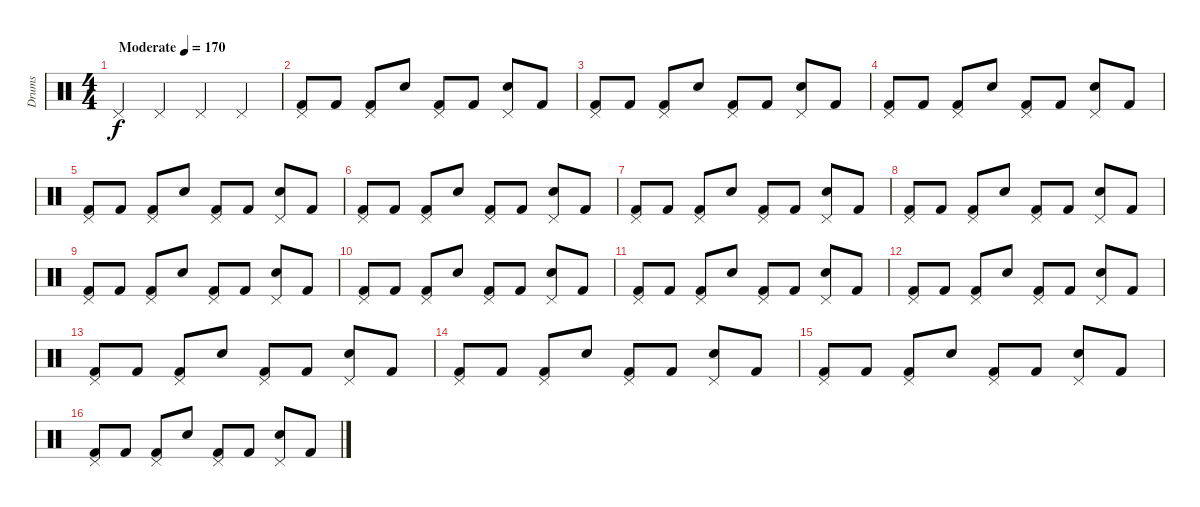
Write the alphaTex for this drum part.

\track ("Drums" "Drums") {instrument percussion}
\staff {score}
\articulation defaults
\ts (4 4)
\tempo (170 "Moderate")
\clef neutral
\ks c "Pedal Hi-Hat (hit)".4{dy f} "Pedal Hi-Hat (hit)".4 "Pedal Hi-Hat (hit)".4 "Pedal Hi-Hat (hit)".4
|
("Pedal Hi-Hat (hit)" "Kick (hit) 2").8 "Kick (hit) 2".8 ("Pedal Hi-Hat (hit)" "Kick (hit) 2").8 "Electric Snare (hit)".8 ("Pedal Hi-Hat (hit)" "Kick (hit) 2").8 "Kick (hit) 2".8 ("Pedal Hi-Hat (hit)" "Electric Snare (hit)").8 "Kick (hit) 2".8 |
("Pedal Hi-Hat (hit)" "Kick (hit) 2").8 "Kick (hit) 2".8 ("Pedal Hi-Hat (hit)" "Kick (hit) 2").8 "Electric Snare (hit)".8 ("Pedal Hi-Hat (hit)" "Kick (hit) 2").8 "Kick (hit) 2".8 ("Pedal Hi-Hat (hit)" "Electric Snare (hit)").8 "Kick (hit) 2".8 |
("Pedal Hi-Hat (hit)" "Kick (hit) 2").8 "Kick (hit) 2".8 ("Pedal Hi-Hat (hit)" "Kick (hit) 2").8 "Electric Snare (hit)".8 ("Pedal Hi-Hat (hit)" "Kick (hit) 2").8 "Kick (hit) 2".8 ("Pedal Hi-Hat (hit)" "Electric Snare (hit)").8 "Kick (hit) 2".8 |
("Pedal Hi-Hat (hit)" "Kick (hit) 2").8 "Kick (hit) 2".8 ("Pedal Hi-Hat (hit)" "Kick (hit) 2").8 "Electric Snare (hit)".8 ("Pedal Hi-Hat (hit)" "Kick (hit) 2").8 "Kick (hit) 2".8 ("Pedal Hi-Hat (hit)" "Electric Snare (hit)").8 "Kick (hit) 2".8 |
("Pedal Hi-Hat (hit)" "Kick (hit) 2").8 "Kick (hit) 2".8 ("Pedal Hi-Hat (hit)" "Kick (hit) 2").8 "Electric Snare (hit)".8 ("Pedal Hi-Hat (hit)" "Kick (hit) 2").8 "Kick (hit) 2".8 ("Pedal Hi-Hat (hit)" "Electric Snare (hit)").8 "Kick (hit) 2".8 |
("Pedal Hi-Hat (hit)" "Kick (hit) 2").8 "Kick (hit) 2".8 ("Pedal Hi-Hat (hit)" "Kick (hit) 2").8 "Electric Snare (hit)".8 ("Pedal Hi-Hat (hit)" "Kick (hit) 2").8 "Kick (hit) 2".8 ("Pedal Hi-Hat (hit)" "Electric Snare (hit)").8 "Kick (hit) 2".8 |
("Pedal Hi-Hat (hit)" "Kick (hit) 2").8 "Kick (hit) 2".8 ("Pedal Hi-Hat (hit)" "Kick (hit) 2").8 "Electric Snare (hit)".8 ("Pedal Hi-Hat (hit)" "Kick (hit) 2").8 "Kick (hit) 2".8 ("Pedal Hi-Hat (hit)" "Electric Snare (hit)").8 "Kick (hit) 2".8 |
("Pedal Hi-Hat (hit)" "Kick (hit) 2").8 "Kick (hit) 2".8 ("Pedal Hi-Hat (hit)" "Kick (hit) 2").8 "Electric Snare (hit)".8 ("Pedal Hi-Hat (hit)" "Kick (hit) 2").8 "Kick (hit) 2".8 ("Pedal Hi-Hat (hit)" "Electric Snare (hit)").8 "Kick (hit) 2".8 |
("Pedal Hi-Hat (hit)" "Kick (hit) 2").8 "Kick (hit) 2".8 ("Pedal Hi-Hat (hit)" "Kick (hit) 2").8 "Electric Snare (hit)".8 ("Pedal Hi-Hat (hit)" "Kick (hit) 2").8 "Kick (hit) 2".8 ("Pedal Hi-Hat (hit)" "Electric Snare (hit)").8 "Kick (hit) 2".8 |
("Pedal Hi-Hat (hit)" "Kick (hit) 2").8 "Kick (hit) 2".8 ("Pedal Hi-Hat (hit)" "Kick (hit) 2").8 "Electric Snare (hit)".8 ("Pedal Hi-Hat (hit)" "Kick (hit) 2").8 "Kick (hit) 2".8 ("Pedal Hi-Hat (hit)" "Electric Snare (hit)").8 "Kick (hit) 2".8 |
("Pedal Hi-Hat (hit)" "Kick (hit) 2").8 "Kick (hit) 2".8 ("Pedal Hi-Hat (hit)" "Kick (hit) 2").8 "Electric Snare (hit)".8 ("Pedal Hi-Hat (hit)" "Kick (hit) 2").8 "Kick (hit) 2".8 ("Pedal Hi-Hat (hit)" "Electric Snare (hit)").8 "Kick (hit) 2".8 |
("Pedal Hi-Hat (hit)" "Kick (hit) 2").8 "Kick (hit) 2".8 ("Pedal Hi-Hat (hit)" "Kick (hit) 2").8 "Electric Snare (hit)".8 ("Pedal Hi-Hat (hit)" "Kick (hit) 2").8 "Kick (hit) 2".8 ("Pedal Hi-Hat (hit)" "Electric Snare (hit)").8 "Kick (hit) 2".8 |
("Pedal Hi-Hat (hit)" "Kick (hit) 2").8 "Kick (hit) 2".8 ("Pedal Hi-Hat (hit)" "Kick (hit) 2").8 "Electric Snare (hit)".8 ("Pedal Hi-Hat (hit)" "Kick (hit) 2").8 "Kick (hit) 2".8 ("Pedal Hi-Hat (hit)" "Electric Snare (hit)").8 "Kick (hit) 2".8 |
("Pedal Hi-Hat (hit)" "Kick (hit) 2").8 "Kick (hit) 2".8 ("Pedal Hi-Hat (hit)" "Kick (hit) 2").8 "Electric Snare (hit)".8 ("Pedal Hi-Hat (hit)" "Kick (hit) 2").8 "Kick (hit) 2".8 ("Pedal Hi-Hat (hit)" "Electric Snare (hit)").8 "Kick (hit) 2".8 |
("Pedal Hi-Hat (hit)" "Kick (hit) 2").8 "Kick (hit) 2".8 ("Pedal Hi-Hat (hit)" "Kick (hit) 2").8 "Electric Snare (hit)".8 ("Pedal Hi-Hat (hit)" "Kick (hit) 2").8 "Kick (hit) 2".8 ("Pedal Hi-Hat (hit)" "Electric Snare (hit)").8 "Kick (hit) 2".8
